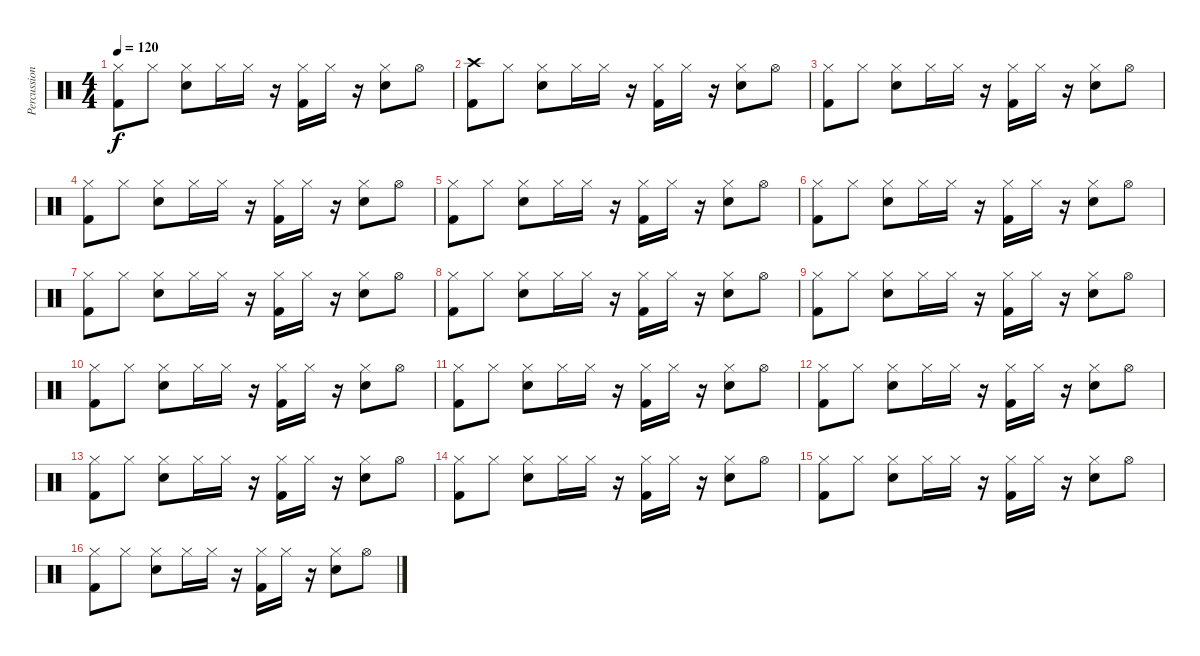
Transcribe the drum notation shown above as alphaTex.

\track ("Percussions" "Percussion") {instrument percussion}
\staff {score}
\articulation defaults
\ts (4 4)
\tempo 120
\clef neutral
\ks c
("Hi-Hat (closed)" "Kick (hit) 2").8{dy f} "Hi-Hat (closed)".8 ("Hi-Hat (closed)" "Snare (hit) 2").8 "Hi-Hat (closed)".16 "Hi-Hat (closed)".16 r.16 ("Hi-Hat (closed)" "Kick (hit) 2").16 "Hi-Hat (closed)".16 r.16 ("Hi-Hat (closed)" "Snare (hit) 2").8 "Hi-Hat (open)".8 |
("Crash high (hit)" "Kick (hit) 2").8 "Hi-Hat (closed)".8 ("Hi-Hat (closed)" "Snare (hit) 2").8 "Hi-Hat (closed)".16 "Hi-Hat (closed)".16 r.16 ("Hi-Hat (closed)" "Kick (hit) 2").16 "Hi-Hat (closed)".16 r.16 ("Hi-Hat (closed)" "Snare (hit) 2").8 "Hi-Hat (open)".8 |
("Hi-Hat (closed)" "Kick (hit) 2").8 "Hi-Hat (closed)".8 ("Hi-Hat (closed)" "Snare (hit) 2").8 "Hi-Hat (closed)".16 "Hi-Hat (closed)".16 r.16 ("Hi-Hat (closed)" "Kick (hit) 2").16 "Hi-Hat (closed)".16 r.16 ("Hi-Hat (closed)" "Snare (hit) 2").8 "Hi-Hat (open)".8 |
("Hi-Hat (closed)" "Kick (hit) 2").8 "Hi-Hat (closed)".8 ("Hi-Hat (closed)" "Snare (hit) 2").8 "Hi-Hat (closed)".16 "Hi-Hat (closed)".16 r.16 ("Hi-Hat (closed)" "Kick (hit) 2").16 "Hi-Hat (closed)".16 r.16 ("Hi-Hat (closed)" "Snare (hit) 2").8 "Hi-Hat (open)".8 |
("Hi-Hat (closed)" "Kick (hit) 2").8 "Hi-Hat (closed)".8 ("Hi-Hat (closed)" "Snare (hit) 2").8 "Hi-Hat (closed)".16 "Hi-Hat (closed)".16 r.16 ("Hi-Hat (closed)" "Kick (hit) 2").16 "Hi-Hat (closed)".16 r.16 ("Hi-Hat (closed)" "Snare (hit) 2").8 "Hi-Hat (open)".8 |
("Hi-Hat (closed)" "Kick (hit) 2").8 "Hi-Hat (closed)".8 ("Hi-Hat (closed)" "Snare (hit) 2").8 "Hi-Hat (closed)".16 "Hi-Hat (closed)".16 r.16 ("Hi-Hat (closed)" "Kick (hit) 2").16 "Hi-Hat (closed)".16 r.16 ("Hi-Hat (closed)" "Snare (hit) 2").8 "Hi-Hat (open)".8 |
("Hi-Hat (closed)" "Kick (hit) 2").8 "Hi-Hat (closed)".8 ("Hi-Hat (closed)" "Snare (hit) 2").8 "Hi-Hat (closed)".16 "Hi-Hat (closed)".16 r.16 ("Hi-Hat (closed)" "Kick (hit) 2").16 "Hi-Hat (closed)".16 r.16 ("Hi-Hat (closed)" "Snare (hit) 2").8 "Hi-Hat (open)".8 |
("Hi-Hat (closed)" "Kick (hit) 2").8 "Hi-Hat (closed)".8 ("Hi-Hat (closed)" "Snare (hit) 2").8 "Hi-Hat (closed)".16 "Hi-Hat (closed)".16 r.16 ("Hi-Hat (closed)" "Kick (hit) 2").16 "Hi-Hat (closed)".16 r.16 ("Hi-Hat (closed)" "Snare (hit) 2").8 "Hi-Hat (open)".8 |
("Hi-Hat (closed)" "Kick (hit) 2").8 "Hi-Hat (closed)".8 ("Hi-Hat (closed)" "Snare (hit) 2").8 "Hi-Hat (closed)".16 "Hi-Hat (closed)".16 r.16 ("Hi-Hat (closed)" "Kick (hit) 2").16 "Hi-Hat (closed)".16 r.16 ("Hi-Hat (closed)" "Snare (hit) 2").8 "Hi-Hat (open)".8 |
("Hi-Hat (closed)" "Kick (hit) 2").8 "Hi-Hat (closed)".8 ("Hi-Hat (closed)" "Snare (hit) 2").8 "Hi-Hat (closed)".16 "Hi-Hat (closed)".16 r.16 ("Hi-Hat (closed)" "Kick (hit) 2").16 "Hi-Hat (closed)".16 r.16 ("Hi-Hat (closed)" "Snare (hit) 2").8 "Hi-Hat (open)".8 |
("Hi-Hat (closed)" "Kick (hit) 2").8 "Hi-Hat (closed)".8 ("Hi-Hat (closed)" "Snare (hit) 2").8 "Hi-Hat (closed)".16 "Hi-Hat (closed)".16 r.16 ("Hi-Hat (closed)" "Kick (hit) 2").16 "Hi-Hat (closed)".16 r.16 ("Hi-Hat (closed)" "Snare (hit) 2").8 "Hi-Hat (open)".8 |
("Hi-Hat (closed)" "Kick (hit) 2").8 "Hi-Hat (closed)".8 ("Hi-Hat (closed)" "Snare (hit) 2").8 "Hi-Hat (closed)".16 "Hi-Hat (closed)".16 r.16 ("Hi-Hat (closed)" "Kick (hit) 2").16 "Hi-Hat (closed)".16 r.16 ("Hi-Hat (closed)" "Snare (hit) 2").8 "Hi-Hat (open)".8 |
("Hi-Hat (closed)" "Kick (hit) 2").8 "Hi-Hat (closed)".8 ("Hi-Hat (closed)" "Snare (hit) 2").8 "Hi-Hat (closed)".16 "Hi-Hat (closed)".16 r.16 ("Hi-Hat (closed)" "Kick (hit) 2").16 "Hi-Hat (closed)".16 r.16 ("Hi-Hat (closed)" "Snare (hit) 2").8 "Hi-Hat (open)".8 |
("Hi-Hat (closed)" "Kick (hit) 2").8 "Hi-Hat (closed)".8 ("Hi-Hat (closed)" "Snare (hit) 2").8 "Hi-Hat (closed)".16 "Hi-Hat (closed)".16 r.16 ("Hi-Hat (closed)" "Kick (hit) 2").16 "Hi-Hat (closed)".16 r.16 ("Hi-Hat (closed)" "Snare (hit) 2").8 "Hi-Hat (open)".8 |
("Hi-Hat (closed)" "Kick (hit) 2").8 "Hi-Hat (closed)".8 ("Hi-Hat (closed)" "Snare (hit) 2").8 "Hi-Hat (closed)".16 "Hi-Hat (closed)".16 r.16 ("Hi-Hat (closed)" "Kick (hit) 2").16 "Hi-Hat (closed)".16 r.16 ("Hi-Hat (closed)" "Snare (hit) 2").8 "Hi-Hat (open)".8 |
("Hi-Hat (closed)" "Kick (hit) 2").8 "Hi-Hat (closed)".8 ("Hi-Hat (closed)" "Snare (hit) 2").8 "Hi-Hat (closed)".16 "Hi-Hat (closed)".16 r.16 ("Hi-Hat (closed)" "Kick (hit) 2").16 "Hi-Hat (closed)".16 r.16 ("Hi-Hat (closed)" "Snare (hit) 2").8 "Hi-Hat (open)".8
